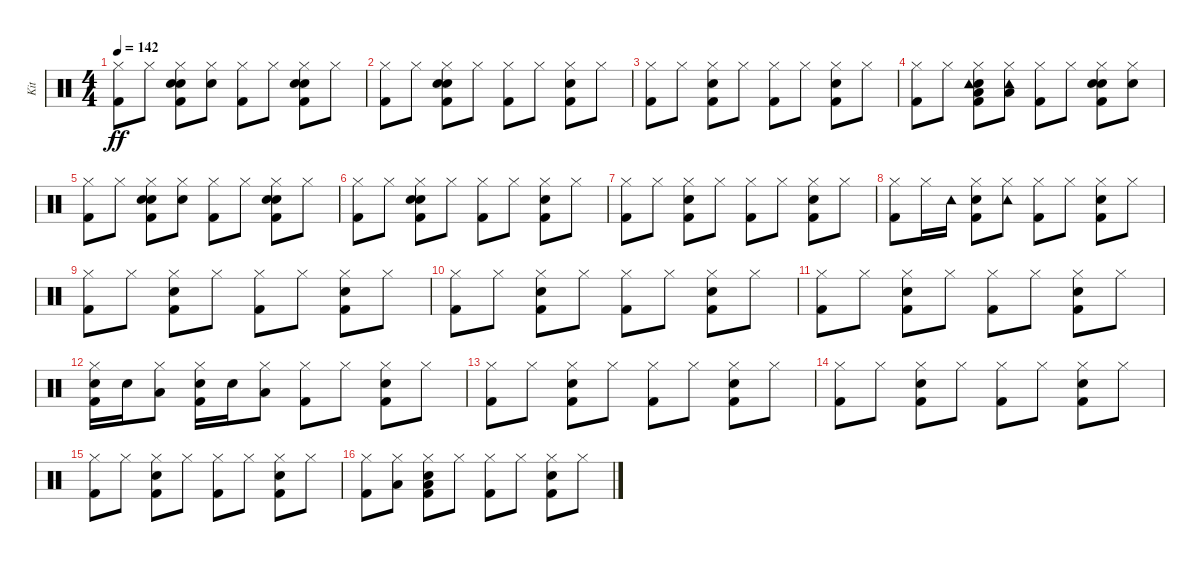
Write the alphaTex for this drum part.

\track ("Kit" "Kit") {instrument percussion}
\staff {score}
\articulation defaults
\ts (4 4)
\tempo 142
\clef neutral
\ks c
("Kick (hit) 2" "Hi-Hat (closed)").8{dy ff} "Hi-Hat (closed)".8 ("Kick (hit) 2" "Hand Clap (hit)" "Electric Snare (hit)" "Hi-Hat (closed)").8 ("Hand Clap (hit)" "Hi-Hat (closed)").8 ("Kick (hit) 2" "Hi-Hat (closed)").8 "Hi-Hat (closed)".8 ("Kick (hit) 2" "Hand Clap (hit)" "Electric Snare (hit)" "Hi-Hat (closed)").8 "Hi-Hat (closed)".8 |
("Kick (hit) 2" "Hi-Hat (closed)").8 "Hi-Hat (closed)".8 ("Kick (hit) 2" "Hand Clap (hit)" "Electric Snare (hit)" "Hi-Hat (closed)").8 "Hi-Hat (closed)".8 ("Kick (hit) 2" "Hi-Hat (closed)").8 "Hi-Hat (closed)".8 ("Kick (hit) 2" "Electric Snare (hit)" "Hi-Hat (closed)").8 "Hi-Hat (closed)".8 |
("Kick (hit) 2" "Hi-Hat (closed)").8 "Hi-Hat (closed)".8 ("Kick (hit) 2" "Electric Snare (hit)" "Hi-Hat (closed)").8 "Hi-Hat (closed)".8 ("Kick (hit) 2" "Hi-Hat (closed)").8 "Hi-Hat (closed)".8 ("Kick (hit) 2" "Electric Snare (hit)" "Hi-Hat (closed)").8 "Hi-Hat (closed)".8 |
("Kick (hit) 2" "Hi-Hat (closed)").8 "Hi-Hat (closed)".8 ("Kick (hit) 2" "Electric Snare (hit)" "Low Floor Tom (hit)" "Hi-Hat (closed)" "Tambourine (hit)").8 ("Low Floor Tom (hit)" "Hi-Hat (closed)" "Tambourine (hit)").8 ("Kick (hit) 2" "Hi-Hat (closed)").8 "Hi-Hat (closed)".8 ("Kick (hit) 2" "Hand Clap (hit)" "Electric Snare (hit)" "Hi-Hat (closed)").8 ("Hand Clap (hit)" "Hi-Hat (closed)").8 |
("Kick (hit) 2" "Hi-Hat (closed)").8 "Hi-Hat (closed)".8 ("Kick (hit) 2" "Hand Clap (hit)" "Electric Snare (hit)" "Hi-Hat (closed)").8 ("Hand Clap (hit)" "Hi-Hat (closed)").8 ("Kick (hit) 2" "Hi-Hat (closed)").8 "Hi-Hat (closed)".8 ("Kick (hit) 2" "Hand Clap (hit)" "Electric Snare (hit)" "Hi-Hat (closed)").8 "Hi-Hat (closed)".8 |
("Kick (hit) 2" "Hi-Hat (closed)").8 "Hi-Hat (closed)".8 ("Kick (hit) 2" "Hand Clap (hit)" "Electric Snare (hit)" "Hi-Hat (closed)").8 "Hi-Hat (closed)".8 ("Kick (hit) 2" "Hi-Hat (closed)").8 "Hi-Hat (closed)".8 ("Kick (hit) 2" "Electric Snare (hit)" "Hi-Hat (closed)").8 "Hi-Hat (closed)".8 |
("Kick (hit) 2" "Hi-Hat (closed)").8 "Hi-Hat (closed)".8 ("Kick (hit) 2" "Electric Snare (hit)" "Hi-Hat (closed)").8 "Hi-Hat (closed)".8 ("Kick (hit) 2" "Hi-Hat (closed)").8 "Hi-Hat (closed)".8 ("Kick (hit) 2" "Electric Snare (hit)" "Hi-Hat (closed)").8 "Hi-Hat (closed)".8 |
("Kick (hit) 2" "Hi-Hat (closed)").8 "Hi-Hat (closed)".16 "Tambourine (hit)".16 ("Kick (hit) 2" "Electric Snare (hit)" "Hi-Hat (closed)").8 ("Hi-Hat (closed)" "Tambourine (hit)").8 ("Kick (hit) 2" "Hi-Hat (closed)").8 "Hi-Hat (closed)".8 ("Kick (hit) 2" "Electric Snare (hit)" "Hi-Hat (closed)").8 "Hi-Hat (closed)".8 |
("Kick (hit) 2" "Hi-Hat (closed)").8 "Hi-Hat (closed)".8 ("Kick (hit) 2" "Electric Snare (hit)" "Hi-Hat (closed)").8 "Hi-Hat (closed)".8 ("Kick (hit) 2" "Hi-Hat (closed)").8 "Hi-Hat (closed)".8 ("Kick (hit) 2" "Electric Snare (hit)" "Hi-Hat (closed)").8 "Hi-Hat (closed)".8 |
("Kick (hit) 2" "Hi-Hat (closed)").8 "Hi-Hat (closed)".8 ("Kick (hit) 2" "Electric Snare (hit)" "Hi-Hat (closed)").8 "Hi-Hat (closed)".8 ("Kick (hit) 2" "Hi-Hat (closed)").8 "Hi-Hat (closed)".8 ("Kick (hit) 2" "Electric Snare (hit)" "Hi-Hat (closed)").8 "Hi-Hat (closed)".8 |
("Kick (hit) 2" "Hi-Hat (closed)").8 "Hi-Hat (closed)".8 ("Kick (hit) 2" "Electric Snare (hit)" "Hi-Hat (closed)").8 "Hi-Hat (closed)".8 ("Kick (hit) 2" "Hi-Hat (closed)").8 "Hi-Hat (closed)".8 ("Kick (hit) 2" "Electric Snare (hit)" "Hi-Hat (closed)").8 "Hi-Hat (closed)".8 |
("Kick (hit) 2" "Electric Snare (hit)" "Hi-Hat (closed)").16 "Electric Snare (hit)".16 ("Hi-Hat (closed)" "Low Tom (hit)").8 ("Kick (hit) 2" "Electric Snare (hit)" "Hi-Hat (closed)").16 "Electric Snare (hit)".16 ("Hi-Hat (closed)" "Low Tom (hit)").8 ("Kick (hit) 2" "Hi-Hat (closed)").8 "Hi-Hat (closed)".8 ("Kick (hit) 2" "Electric Snare (hit)" "Hi-Hat (closed)").8 "Hi-Hat (closed)".8 |
("Kick (hit) 2" "Hi-Hat (closed)").8 "Hi-Hat (closed)".8 ("Kick (hit) 2" "Electric Snare (hit)" "Hi-Hat (closed)").8 "Hi-Hat (closed)".8 ("Kick (hit) 2" "Hi-Hat (closed)").8 "Hi-Hat (closed)".8 ("Kick (hit) 2" "Electric Snare (hit)" "Hi-Hat (closed)").8 "Hi-Hat (closed)".8 |
("Kick (hit) 2" "Hi-Hat (closed)").8 "Hi-Hat (closed)".8 ("Kick (hit) 2" "Electric Snare (hit)" "Hi-Hat (closed)").8 "Hi-Hat (closed)".8 ("Kick (hit) 2" "Hi-Hat (closed)").8 "Hi-Hat (closed)".8 ("Kick (hit) 2" "Electric Snare (hit)" "Hi-Hat (closed)").8 "Hi-Hat (closed)".8 |
("Kick (hit) 2" "Hi-Hat (closed)").8 "Hi-Hat (closed)".8 ("Kick (hit) 2" "Electric Snare (hit)" "Hi-Hat (closed)").8 "Hi-Hat (closed)".8 ("Kick (hit) 2" "Hi-Hat (closed)").8 "Hi-Hat (closed)".8 ("Kick (hit) 2" "Electric Snare (hit)" "Hi-Hat (closed)").8 "Hi-Hat (closed)".8 |
("Kick (hit) 2" "Hi-Hat (closed)").8 ("Low Floor Tom (hit)" "Hi-Hat (closed)").8 ("Kick (hit) 2" "Electric Snare (hit)" "Low Floor Tom (hit)" "Hi-Hat (closed)").8 "Hi-Hat (closed)".8 ("Kick (hit) 2" "Hi-Hat (closed)").8 "Hi-Hat (closed)".8 ("Kick (hit) 2" "Electric Snare (hit)" "Hi-Hat (closed)").8 "Hi-Hat (closed)".8
